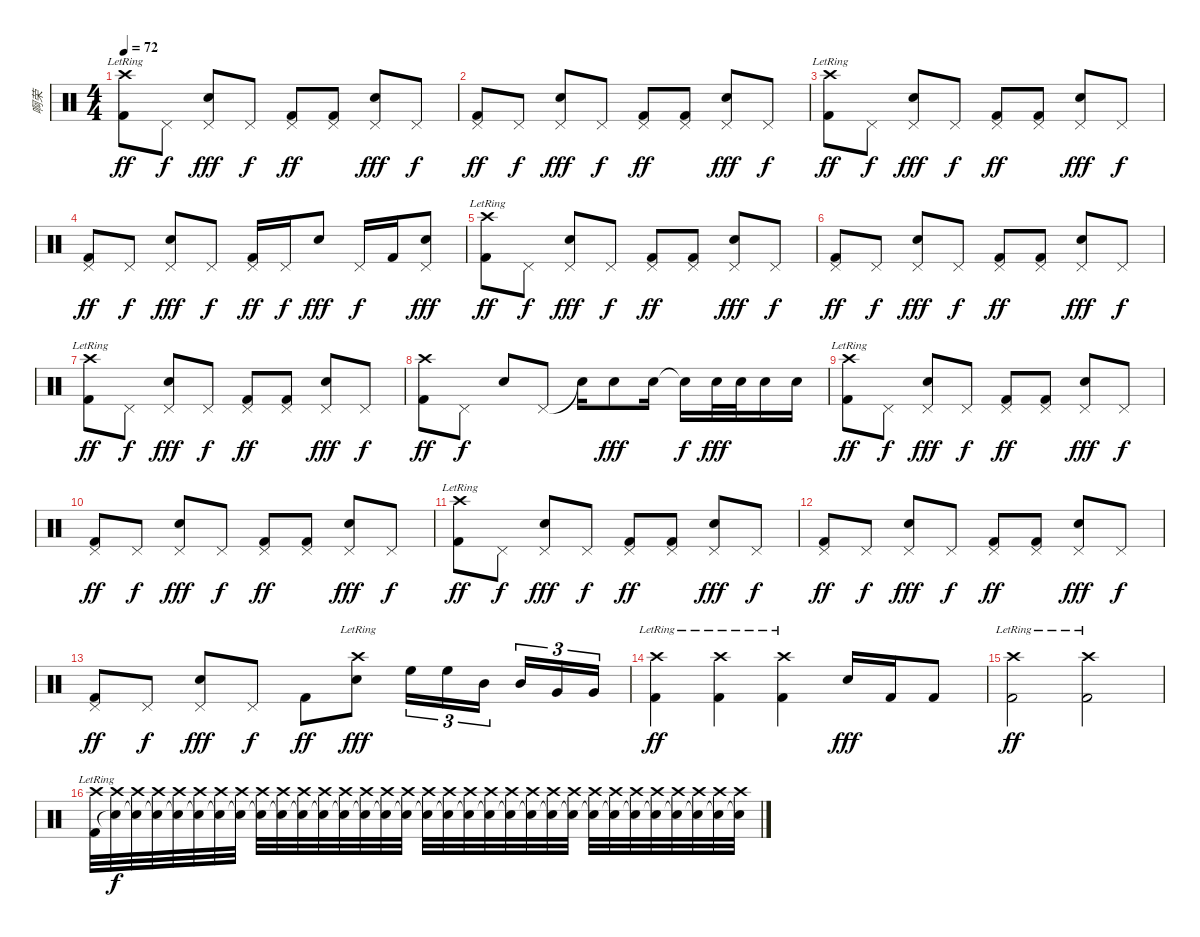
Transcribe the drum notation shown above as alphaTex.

\track ("啊荣" "啊荣") {instrument percussion}
\staff {score}
\articulation defaults
\ts (4 4)
\tempo 72
\clef neutral
\ks c
("Crash high (hit)"{lr} "Kick (hit) 2").8{dy ff} "Pedal Hi-Hat (hit)".8{dy f} ("Pedal Hi-Hat (hit)" "Electric Snare (hit)").8{dy fff} "Pedal Hi-Hat (hit)".8{dy f} ("Pedal Hi-Hat (hit)" "Kick (hit) 2").8{dy ff} ("Pedal Hi-Hat (hit)" "Kick (hit) 2").8 ("Pedal Hi-Hat (hit)" "Electric Snare (hit)").8{dy fff} "Pedal Hi-Hat (hit)".8{dy f} |
("Pedal Hi-Hat (hit)" "Kick (hit) 2").8{dy ff} "Pedal Hi-Hat (hit)".8{dy f} ("Pedal Hi-Hat (hit)" "Electric Snare (hit)").8{dy fff} "Pedal Hi-Hat (hit)".8{dy f} ("Pedal Hi-Hat (hit)" "Kick (hit) 2").8{dy ff} ("Pedal Hi-Hat (hit)" "Kick (hit) 2").8 ("Pedal Hi-Hat (hit)" "Electric Snare (hit)").8{dy fff} "Pedal Hi-Hat (hit)".8{dy f} |
("Crash high (hit)"{lr} "Kick (hit) 2").8{dy ff} "Pedal Hi-Hat (hit)".8{dy f} ("Pedal Hi-Hat (hit)" "Electric Snare (hit)").8{dy fff} "Pedal Hi-Hat (hit)".8{dy f} ("Pedal Hi-Hat (hit)" "Kick (hit) 2").8{dy ff} ("Pedal Hi-Hat (hit)" "Kick (hit) 2").8 ("Pedal Hi-Hat (hit)" "Electric Snare (hit)").8{dy fff} "Pedal Hi-Hat (hit)".8{dy f} |
("Pedal Hi-Hat (hit)" "Kick (hit) 2").8{dy ff} "Pedal Hi-Hat (hit)".8{dy f} ("Pedal Hi-Hat (hit)" "Electric Snare (hit)").8{dy fff} "Pedal Hi-Hat (hit)".8{dy f} ("Pedal Hi-Hat (hit)" "Kick (hit) 2").16{dy ff} "Pedal Hi-Hat (hit)".16{dy f} "Electric Snare (hit)".8{dy fff} "Pedal Hi-Hat (hit)".16{dy f} "Kick (hit) 2".16 ("Pedal Hi-Hat (hit)" "Electric Snare (hit)").8{dy fff} |
("Crash high (hit)"{lr} "Kick (hit) 2").8{dy ff} "Pedal Hi-Hat (hit)".8{dy f} ("Pedal Hi-Hat (hit)" "Electric Snare (hit)").8{dy fff} "Pedal Hi-Hat (hit)".8{dy f} ("Pedal Hi-Hat (hit)" "Kick (hit) 2").8{dy ff} ("Pedal Hi-Hat (hit)" "Kick (hit) 2").8 ("Pedal Hi-Hat (hit)" "Electric Snare (hit)").8{dy fff} "Pedal Hi-Hat (hit)".8{dy f} |
("Pedal Hi-Hat (hit)" "Kick (hit) 2").8{dy ff} "Pedal Hi-Hat (hit)".8{dy f} ("Pedal Hi-Hat (hit)" "Electric Snare (hit)").8{dy fff} "Pedal Hi-Hat (hit)".8{dy f} ("Pedal Hi-Hat (hit)" "Kick (hit) 2").8{dy ff} ("Pedal Hi-Hat (hit)" "Kick (hit) 2").8 ("Pedal Hi-Hat (hit)" "Electric Snare (hit)").8{dy fff} "Pedal Hi-Hat (hit)".8{dy f} |
("Crash high (hit)"{lr} "Kick (hit) 2").8{dy ff} "Pedal Hi-Hat (hit)".8{dy f} ("Pedal Hi-Hat (hit)" "Electric Snare (hit)").8{dy fff} "Pedal Hi-Hat (hit)".8{dy f} ("Pedal Hi-Hat (hit)" "Kick (hit) 2").8{dy ff} ("Pedal Hi-Hat (hit)" "Kick (hit) 2").8 ("Pedal Hi-Hat (hit)" "Electric Snare (hit)").8{dy fff} "Pedal Hi-Hat (hit)".8{dy f} |
("Crash high (hit)" "Kick (hit) 2").8{dy ff} "Pedal Hi-Hat (hit)".8{dy f} "Electric Snare (hit)".8 "Pedal Hi-Hat (hit)".8 "Snare (hit)"{t}.16 "Electric Snare (hit)".8{dy fff} "Electric Snare (hit)".16 "Snare (hit)"{t}.16{dy f} "Electric Snare (hit)".32{dy fff} "Electric Snare (hit)".32 "Electric Snare (hit)".16 "Electric Snare (hit)".16 |
("Crash high (hit)"{lr} "Kick (hit) 2").8{dy ff} "Pedal Hi-Hat (hit)".8{dy f} ("Pedal Hi-Hat (hit)" "Electric Snare (hit)").8{dy fff} "Pedal Hi-Hat (hit)".8{dy f} ("Pedal Hi-Hat (hit)" "Kick (hit) 2").8{dy ff} ("Pedal Hi-Hat (hit)" "Kick (hit) 2").8 ("Pedal Hi-Hat (hit)" "Electric Snare (hit)").8{dy fff} "Pedal Hi-Hat (hit)".8{dy f} |
("Pedal Hi-Hat (hit)" "Kick (hit) 2").8{dy ff} "Pedal Hi-Hat (hit)".8{dy f} ("Pedal Hi-Hat (hit)" "Electric Snare (hit)").8{dy fff} "Pedal Hi-Hat (hit)".8{dy f} ("Pedal Hi-Hat (hit)" "Kick (hit) 2").8{dy ff} ("Pedal Hi-Hat (hit)" "Kick (hit) 2").8 ("Pedal Hi-Hat (hit)" "Electric Snare (hit)").8{dy fff} "Pedal Hi-Hat (hit)".8{dy f} |
("Crash high (hit)"{lr} "Kick (hit) 2").8{dy ff} "Pedal Hi-Hat (hit)".8{dy f} ("Pedal Hi-Hat (hit)" "Electric Snare (hit)").8{dy fff} "Pedal Hi-Hat (hit)".8{dy f} ("Pedal Hi-Hat (hit)" "Kick (hit) 2").8{dy ff} ("Pedal Hi-Hat (hit)" "Kick (hit) 2").8 ("Pedal Hi-Hat (hit)" "Electric Snare (hit)").8{dy fff} "Pedal Hi-Hat (hit)".8{dy f} |
("Pedal Hi-Hat (hit)" "Kick (hit) 2").8{dy ff} "Pedal Hi-Hat (hit)".8{dy f} ("Pedal Hi-Hat (hit)" "Electric Snare (hit)").8{dy fff} "Pedal Hi-Hat (hit)".8{dy f} ("Pedal Hi-Hat (hit)" "Kick (hit) 2").8{dy ff} ("Pedal Hi-Hat (hit)" "Kick (hit) 2").8 ("Pedal Hi-Hat (hit)" "Electric Snare (hit)").8{dy fff} "Pedal Hi-Hat (hit)".8{dy f} |
("Pedal Hi-Hat (hit)" "Kick (hit) 2").8{dy ff} "Pedal Hi-Hat (hit)".8{dy f} ("Pedal Hi-Hat (hit)" "Electric Snare (hit)").8{dy fff} "Pedal Hi-Hat (hit)".8{dy f} "Kick (hit) 2".8{dy ff} ("Crash high (hit)"{lr} "Electric Snare (hit)").8{dy fff} "High Floor Tom (hit)".16{tu (3 2)} "High Floor Tom (hit)".16{tu (3 2)} "Mid Tom (hit)".16{tu (3 2)} "Mid Tom (hit)".16{tu (3 2)} "Very Low Tom (hit)".16{tu (3 2)} "Very Low Tom (hit)".16{tu (3 2)} |
("Crash high (hit)"{lr} "Kick (hit) 2").4{dy ff} ("Crash high (hit)"{lr} "Kick (hit) 2").4 ("Crash high (hit)"{lr} "Kick (hit) 2").4 "Electric Snare (hit)".16{dy fff} "Kick (hit) 2".16 "Kick (hit) 2".8 |
("Crash high (hit)"{lr} "Kick (hit) 2").2{dy ff} ("Crash high (hit)"{lr} "Kick (hit) 2").2 |
("Crash high (hit)"{lr} "Kick (hit) 2").32{volume 0} ("Crash high (hit)" "Snare (hit)"{t}).32{dy f} ("Crash high (hit)" "Snare (hit)"{t}).32 ("Crash high (hit)" "Snare (hit)"{t}).32 ("Crash high (hit)" "Snare (hit)"{t}).32 ("Crash high (hit)" "Snare (hit)"{t}).32 ("Crash high (hit)" "Snare (hit)"{t}).32 ("Crash high (hit)" "Snare (hit)"{t}).32 ("Crash high (hit)" "Snare (hit)"{t}).32 ("Crash high (hit)" "Snare (hit)"{t}).32 ("Crash high (hit)" "Snare (hit)"{t}).32 ("Crash high (hit)" "Snare (hit)"{t}).32 ("Crash high (hit)" "Snare (hit)"{t}).32 ("Crash high (hit)" "Snare (hit)"{t}).32 ("Crash high (hit)" "Snare (hit)"{t}).32 ("Crash high (hit)" "Snare (hit)"{t}).32 ("Crash high (hit)" "Snare (hit)"{t}).32 ("Crash high (hit)" "Snare (hit)"{t}).32 ("Crash high (hit)" "Snare (hit)"{t}).32 ("Crash high (hit)" "Snare (hit)"{t}).32 ("Crash high (hit)" "Snare (hit)"{t}).32 ("Crash high (hit)" "Snare (hit)"{t}).32 ("Crash high (hit)" "Snare (hit)"{t}).32 ("Crash high (hit)" "Snare (hit)"{t}).32 ("Crash high (hit)" "Snare (hit)"{t}).32 ("Crash high (hit)" "Snare (hit)"{t}).32 ("Crash high (hit)" "Snare (hit)"{t}).32 ("Crash high (hit)" "Snare (hit)"{t}).32 ("Crash high (hit)" "Snare (hit)"{t}).32 ("Crash high (hit)" "Snare (hit)"{t}).32 ("Crash high (hit)" "Snare (hit)"{t}).32 ("Crash high (hit)" "Snare (hit)"{t}).32
